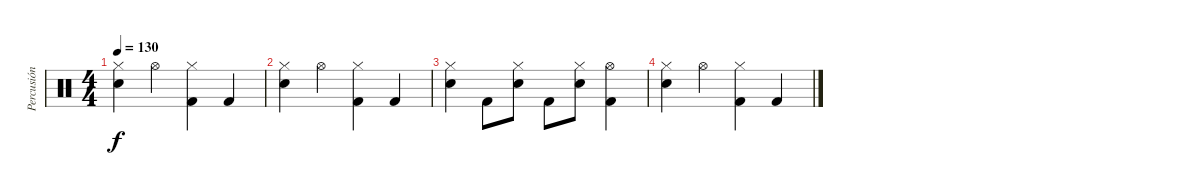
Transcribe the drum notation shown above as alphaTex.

\track ("Percusión" "Percusión") {instrument percussion}
\staff {score}
\articulation defaults
\ts (4 4)
\tempo 130
\clef neutral
\ks c
("Hi-Hat (closed)" "Electric Snare (hit)").4{dy f} "Hi-Hat (open)".4 ("Hi-Hat (closed)" "Kick (hit) 2").4 "Kick (hit) 2".4 |
("Hi-Hat (closed)" "Electric Snare (hit)").4 "Hi-Hat (open)".4 ("Hi-Hat (closed)" "Kick (hit) 2").4 "Kick (hit) 2".4 |
("Hi-Hat (closed)" "Electric Snare (hit)").4 "Kick (hit) 2".8 ("Hi-Hat (closed)" "Electric Snare (hit)").8 "Kick (hit) 2".8 ("Hi-Hat (closed)" "Electric Snare (hit)").8 ("Hi-Hat (open)" "Kick (hit) 2").4 |
("Hi-Hat (closed)" "Electric Snare (hit)").4 "Hi-Hat (open)".4 ("Hi-Hat (closed)" "Kick (hit) 2").4 "Kick (hit) 2".4
